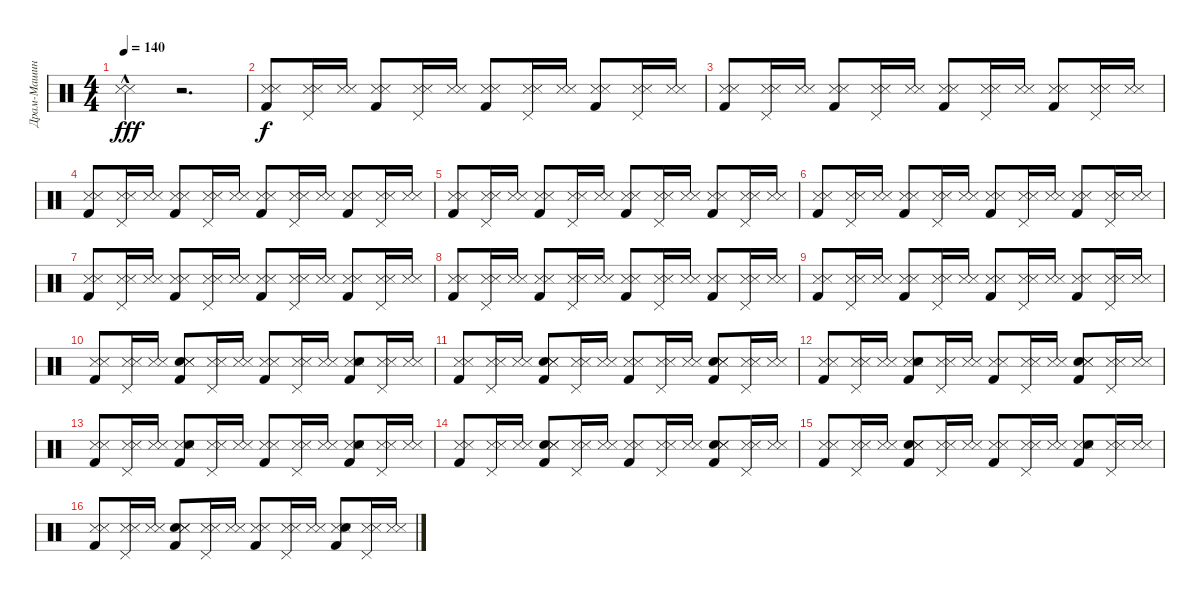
\track ("Драм-Машина" "Драм-Машин") {instrument percussion}
\staff {score}
\articulation defaults
\ts (4 4)
\tempo 140
\clef neutral
\ks c
("Snare (side stick) 3"{hac} "Metronome (hit)"{hac}).4{dy fff} r.2{d} |
("Kick (hit) 2" "Snare (side stick) 3" "Metronome (hit)").8{dy f} ("Snare (side stick) 3" "Pedal Hi-Hat (hit)" "Metronome (hit)").16 ("Snare (side stick) 3" "Metronome (hit)").16 ("Snare (side stick) 3" "Kick (hit) 2" "Metronome (hit)").8 ("Pedal Hi-Hat (hit)" "Snare (side stick) 3" "Metronome (hit)").16 ("Snare (side stick) 3" "Metronome (hit)").16 ("Kick (hit) 2" "Snare (side stick) 3" "Metronome (hit)").8 ("Pedal Hi-Hat (hit)" "Snare (side stick) 3" "Metronome (hit)").16 ("Snare (side stick) 3" "Metronome (hit)").16 ("Snare (side stick) 3" "Kick (hit) 2" "Metronome (hit)").8 ("Pedal Hi-Hat (hit)" "Snare (side stick) 3" "Metronome (hit)").16 ("Snare (side stick) 3" "Metronome (hit)").16 |
("Snare (side stick) 3" "Kick (hit) 2" "Metronome (hit)").8 ("Snare (side stick) 3" "Pedal Hi-Hat (hit)" "Metronome (hit)").16 ("Snare (side stick) 3" "Metronome (hit)").16 ("Kick (hit) 2" "Snare (side stick) 3" "Metronome (hit)").8 ("Snare (side stick) 3" "Pedal Hi-Hat (hit)" "Metronome (hit)").16 ("Snare (side stick) 3" "Metronome (hit)").16 ("Kick (hit) 2" "Snare (side stick) 3" "Metronome (hit)").8 ("Snare (side stick) 3" "Pedal Hi-Hat (hit)" "Metronome (hit)").16 ("Snare (side stick) 3" "Metronome (hit)").16 ("Kick (hit) 2" "Snare (side stick) 3" "Metronome (hit)").8 ("Pedal Hi-Hat (hit)" "Snare (side stick) 3" "Metronome (hit)").16 ("Snare (side stick) 3" "Metronome (hit)").16 |
("Snare (side stick) 3" "Kick (hit) 2" "Metronome (hit)").8 ("Pedal Hi-Hat (hit)" "Snare (side stick) 3" "Metronome (hit)").16 ("Snare (side stick) 3" "Metronome (hit)").16 ("Kick (hit) 2" "Snare (side stick) 3" "Metronome (hit)").8 ("Snare (side stick) 3" "Pedal Hi-Hat (hit)" "Metronome (hit)").16 ("Snare (side stick) 3" "Metronome (hit)").16 ("Kick (hit) 2" "Snare (side stick) 3" "Metronome (hit)").8 ("Snare (side stick) 3" "Pedal Hi-Hat (hit)" "Metronome (hit)").16 ("Snare (side stick) 3" "Metronome (hit)").16 ("Kick (hit) 2" "Snare (side stick) 3" "Metronome (hit)").8 ("Pedal Hi-Hat (hit)" "Snare (side stick) 3" "Metronome (hit)").16 ("Snare (side stick) 3" "Metronome (hit)").16 |
("Snare (side stick) 3" "Kick (hit) 2" "Metronome (hit)").8 ("Pedal Hi-Hat (hit)" "Snare (side stick) 3" "Metronome (hit)").16 ("Snare (side stick) 3" "Metronome (hit)").16 ("Kick (hit) 2" "Snare (side stick) 3" "Metronome (hit)").8 ("Pedal Hi-Hat (hit)" "Snare (side stick) 3" "Metronome (hit)").16 ("Snare (side stick) 3" "Metronome (hit)").16 ("Snare (side stick) 3" "Kick (hit) 2" "Metronome (hit)").8 ("Pedal Hi-Hat (hit)" "Snare (side stick) 3" "Metronome (hit)").16 ("Snare (side stick) 3" "Metronome (hit)").16 ("Snare (side stick) 3" "Kick (hit) 2" "Metronome (hit)").8 ("Snare (side stick) 3" "Pedal Hi-Hat (hit)" "Metronome (hit)").16 ("Snare (side stick) 3" "Metronome (hit)").16 |
("Snare (side stick) 3" "Kick (hit) 2" "Metronome (hit)").8 ("Pedal Hi-Hat (hit)" "Snare (side stick) 3" "Metronome (hit)").16 ("Snare (side stick) 3" "Metronome (hit)").16 ("Kick (hit) 2" "Snare (side stick) 3" "Metronome (hit)").8 ("Pedal Hi-Hat (hit)" "Snare (side stick) 3" "Metronome (hit)").16 ("Snare (side stick) 3" "Metronome (hit)").16 ("Snare (side stick) 3" "Kick (hit) 2" "Metronome (hit)").8 ("Pedal Hi-Hat (hit)" "Snare (side stick) 3" "Metronome (hit)").16 ("Snare (side stick) 3" "Metronome (hit)").16 ("Kick (hit) 2" "Snare (side stick) 3" "Metronome (hit)").8 ("Pedal Hi-Hat (hit)" "Snare (side stick) 3" "Metronome (hit)").16 ("Snare (side stick) 3" "Metronome (hit)").16 |
("Snare (side stick) 3" "Kick (hit) 2" "Metronome (hit)").8 ("Pedal Hi-Hat (hit)" "Snare (side stick) 3" "Metronome (hit)").16 ("Snare (side stick) 3" "Metronome (hit)").16 ("Kick (hit) 2" "Snare (side stick) 3" "Metronome (hit)").8 ("Pedal Hi-Hat (hit)" "Snare (side stick) 3" "Metronome (hit)").16 ("Snare (side stick) 3" "Metronome (hit)").16 ("Kick (hit) 2" "Snare (side stick) 3" "Metronome (hit)").8 ("Pedal Hi-Hat (hit)" "Snare (side stick) 3" "Metronome (hit)").16 ("Snare (side stick) 3" "Metronome (hit)").16 ("Kick (hit) 2" "Snare (side stick) 3" "Metronome (hit)").8 ("Snare (side stick) 3" "Pedal Hi-Hat (hit)" "Metronome (hit)").16 ("Snare (side stick) 3" "Metronome (hit)").16 |
("Snare (side stick) 3" "Kick (hit) 2" "Metronome (hit)").8 ("Snare (side stick) 3" "Pedal Hi-Hat (hit)" "Metronome (hit)").16 ("Snare (side stick) 3" "Metronome (hit)").16 ("Kick (hit) 2" "Snare (side stick) 3" "Metronome (hit)").8 ("Pedal Hi-Hat (hit)" "Snare (side stick) 3" "Metronome (hit)").16 ("Snare (side stick) 3" "Metronome (hit)").16 ("Kick (hit) 2" "Snare (side stick) 3" "Metronome (hit)").8 ("Pedal Hi-Hat (hit)" "Snare (side stick) 3" "Metronome (hit)").16 ("Snare (side stick) 3" "Metronome (hit)").16 ("Kick (hit) 2" "Snare (side stick) 3" "Metronome (hit)").8 ("Pedal Hi-Hat (hit)" "Snare (side stick) 3" "Metronome (hit)").16 ("Snare (side stick) 3" "Metronome (hit)").16 |
("Kick (hit) 2" "Snare (side stick) 3" "Metronome (hit)").8 ("Pedal Hi-Hat (hit)" "Snare (side stick) 3" "Metronome (hit)").16 ("Snare (side stick) 3" "Metronome (hit)").16 ("Kick (hit) 2" "Snare (side stick) 3" "Metronome (hit)").8 ("Snare (side stick) 3" "Pedal Hi-Hat (hit)" "Metronome (hit)").16 ("Snare (side stick) 3" "Metronome (hit)").16 ("Kick (hit) 2" "Snare (side stick) 3" "Metronome (hit)").8 ("Pedal Hi-Hat (hit)" "Snare (side stick) 3" "Metronome (hit)").16 ("Snare (side stick) 3" "Metronome (hit)").16 ("Snare (side stick) 3" "Kick (hit) 2" "Metronome (hit)").8 ("Pedal Hi-Hat (hit)" "Snare (side stick) 3" "Metronome (hit)").16 ("Snare (side stick) 3" "Metronome (hit)").16 |
("Kick (hit) 2" "Snare (side stick) 3" "Metronome (hit)").8 ("Pedal Hi-Hat (hit)" "Snare (side stick) 3" "Metronome (hit)").16 ("Snare (side stick) 3" "Metronome (hit)").16 ("Snare (hit) 2" "Kick (hit) 2" "Snare (side stick) 3" "Metronome (hit)").8 ("Pedal Hi-Hat (hit)" "Snare (side stick) 3" "Metronome (hit)").16 ("Snare (side stick) 3" "Metronome (hit)").16 ("Snare (side stick) 3" "Kick (hit) 2" "Metronome (hit)").8 ("Snare (side stick) 3" "Pedal Hi-Hat (hit)" "Metronome (hit)").16 ("Snare (side stick) 3" "Metronome (hit)").16 ("Kick (hit) 2" "Snare (side stick) 3" "Snare (hit) 2" "Metronome (hit)").8 ("Pedal Hi-Hat (hit)" "Snare (side stick) 3" "Metronome (hit)").16 ("Snare (side stick) 3" "Metronome (hit)").16 |
("Snare (side stick) 3" "Kick (hit) 2" "Metronome (hit)").8 ("Snare (side stick) 3" "Pedal Hi-Hat (hit)" "Metronome (hit)").16 ("Snare (side stick) 3" "Metronome (hit)").16 ("Snare (hit) 2" "Kick (hit) 2" "Snare (side stick) 3" "Metronome (hit)").8 ("Pedal Hi-Hat (hit)" "Snare (side stick) 3" "Metronome (hit)").16 ("Snare (side stick) 3" "Metronome (hit)").16 ("Kick (hit) 2" "Snare (side stick) 3" "Metronome (hit)").8 ("Snare (side stick) 3" "Pedal Hi-Hat (hit)" "Metronome (hit)").16 ("Snare (side stick) 3" "Metronome (hit)").16 ("Kick (hit) 2" "Snare (hit) 2" "Snare (side stick) 3" "Metronome (hit)").8 ("Pedal Hi-Hat (hit)" "Snare (side stick) 3" "Metronome (hit)").16 ("Snare (side stick) 3" "Metronome (hit)").16 |
("Kick (hit) 2" "Snare (side stick) 3" "Metronome (hit)").8 ("Snare (side stick) 3" "Pedal Hi-Hat (hit)" "Metronome (hit)").16 ("Snare (side stick) 3" "Metronome (hit)").16 ("Snare (side stick) 3" "Snare (hit) 2" "Kick (hit) 2" "Metronome (hit)").8 ("Pedal Hi-Hat (hit)" "Snare (side stick) 3" "Metronome (hit)").16 ("Snare (side stick) 3" "Metronome (hit)").16 ("Kick (hit) 2" "Snare (side stick) 3" "Metronome (hit)").8 ("Pedal Hi-Hat (hit)" "Snare (side stick) 3" "Metronome (hit)").16 ("Snare (side stick) 3" "Metronome (hit)").16 ("Kick (hit) 2" "Snare (hit) 2" "Snare (side stick) 3" "Metronome (hit)").8 ("Pedal Hi-Hat (hit)" "Snare (side stick) 3" "Metronome (hit)").16 ("Snare (side stick) 3" "Metronome (hit)").16 |
("Snare (side stick) 3" "Kick (hit) 2" "Metronome (hit)").8 ("Snare (side stick) 3" "Pedal Hi-Hat (hit)" "Metronome (hit)").16 ("Snare (side stick) 3" "Metronome (hit)").16 ("Kick (hit) 2" "Snare (side stick) 3" "Snare (hit) 2" "Metronome (hit)").8 ("Pedal Hi-Hat (hit)" "Snare (side stick) 3" "Metronome (hit)").16 ("Snare (side stick) 3" "Metronome (hit)").16 ("Snare (side stick) 3" "Kick (hit) 2" "Metronome (hit)").8 ("Pedal Hi-Hat (hit)" "Snare (side stick) 3" "Metronome (hit)").16 ("Snare (side stick) 3" "Metronome (hit)").16 ("Kick (hit) 2" "Snare (side stick) 3" "Snare (hit) 2" "Metronome (hit)").8 ("Snare (side stick) 3" "Pedal Hi-Hat (hit)" "Metronome (hit)").16 ("Snare (side stick) 3" "Metronome (hit)").16 |
("Snare (side stick) 3" "Kick (hit) 2" "Metronome (hit)").8 ("Snare (side stick) 3" "Pedal Hi-Hat (hit)" "Metronome (hit)").16 ("Snare (side stick) 3" "Metronome (hit)").16 ("Snare (hit) 2" "Kick (hit) 2" "Snare (side stick) 3" "Metronome (hit)").8 ("Snare (side stick) 3" "Pedal Hi-Hat (hit)" "Metronome (hit)").16 ("Snare (side stick) 3" "Metronome (hit)").16 ("Snare (side stick) 3" "Kick (hit) 2" "Metronome (hit)").8 ("Snare (side stick) 3" "Pedal Hi-Hat (hit)" "Metronome (hit)").16 ("Snare (side stick) 3" "Metronome (hit)").16 ("Kick (hit) 2" "Snare (hit) 2" "Snare (side stick) 3" "Metronome (hit)").8 ("Pedal Hi-Hat (hit)" "Snare (side stick) 3" "Metronome (hit)").16 ("Snare (side stick) 3" "Metronome (hit)").16 |
("Kick (hit) 2" "Snare (side stick) 3" "Metronome (hit)").8 ("Pedal Hi-Hat (hit)" "Snare (side stick) 3" "Metronome (hit)").16 ("Snare (side stick) 3" "Metronome (hit)").16 ("Kick (hit) 2" "Snare (hit) 2" "Snare (side stick) 3" "Metronome (hit)").8 ("Pedal Hi-Hat (hit)" "Snare (side stick) 3" "Metronome (hit)").16 ("Snare (side stick) 3" "Metronome (hit)").16 ("Kick (hit) 2" "Snare (side stick) 3" "Metronome (hit)").8 ("Snare (side stick) 3" "Pedal Hi-Hat (hit)" "Metronome (hit)").16 ("Snare (side stick) 3" "Metronome (hit)").16 ("Snare (side stick) 3" "Snare (hit) 2" "Kick (hit) 2" "Metronome (hit)").8 ("Pedal Hi-Hat (hit)" "Snare (side stick) 3" "Metronome (hit)").16 ("Snare (side stick) 3" "Metronome (hit)").16 |
("Snare (side stick) 3" "Kick (hit) 2" "Metronome (hit)").8 ("Snare (side stick) 3" "Pedal Hi-Hat (hit)" "Metronome (hit)").16 ("Snare (side stick) 3" "Metronome (hit)").16 ("Snare (hit) 2" "Snare (side stick) 3" "Kick (hit) 2" "Metronome (hit)").8 ("Snare (side stick) 3" "Pedal Hi-Hat (hit)" "Metronome (hit)").16 ("Snare (side stick) 3" "Metronome (hit)").16 ("Kick (hit) 2" "Snare (side stick) 3" "Metronome (hit)").8 ("Pedal Hi-Hat (hit)" "Snare (side stick) 3" "Metronome (hit)").16 ("Snare (side stick) 3" "Metronome (hit)").16 ("Kick (hit) 2" "Snare (side stick) 3" "Snare (hit) 2" "Metronome (hit)").8 ("Pedal Hi-Hat (hit)" "Snare (side stick) 3" "Metronome (hit)").16 ("Snare (side stick) 3" "Metronome (hit)").16
